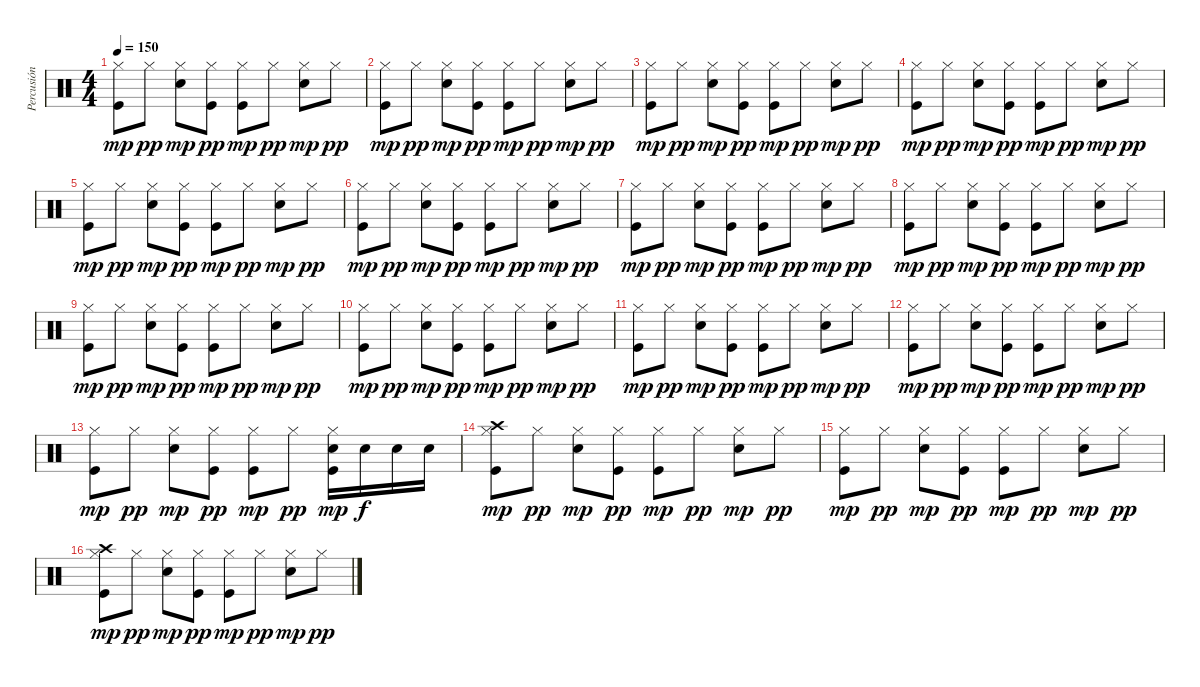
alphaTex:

\track ("Percusión" "Percusión") {instrument percussion}
\staff {score}
\articulation defaults
\ts (4 4)
\tempo 150
\clef neutral
\ks c
("Hi-Hat (closed)" "Kick (hit)").8{dy mp} "Hi-Hat (closed)".8{dy pp} ("Hi-Hat (closed)" "Snare (hit) 2").8{dy mp} ("Hi-Hat (closed)" "Kick (hit)").8{dy pp} ("Hi-Hat (closed)" "Kick (hit)").8{dy mp} "Hi-Hat (closed)".8{dy pp} ("Hi-Hat (closed)" "Snare (hit) 2").8{dy mp} "Hi-Hat (closed)".8{dy pp} |
("Hi-Hat (closed)" "Kick (hit)").8{dy mp} "Hi-Hat (closed)".8{dy pp} ("Hi-Hat (closed)" "Snare (hit) 2").8{dy mp} ("Hi-Hat (closed)" "Kick (hit)").8{dy pp} ("Hi-Hat (closed)" "Kick (hit)").8{dy mp} "Hi-Hat (closed)".8{dy pp} ("Hi-Hat (closed)" "Snare (hit) 2").8{dy mp} "Hi-Hat (closed)".8{dy pp} |
("Hi-Hat (closed)" "Kick (hit)").8{dy mp} "Hi-Hat (closed)".8{dy pp} ("Hi-Hat (closed)" "Snare (hit) 2").8{dy mp} ("Hi-Hat (closed)" "Kick (hit)").8{dy pp} ("Hi-Hat (closed)" "Kick (hit)").8{dy mp} "Hi-Hat (closed)".8{dy pp} ("Hi-Hat (closed)" "Snare (hit) 2").8{dy mp} "Hi-Hat (closed)".8{dy pp} |
("Hi-Hat (closed)" "Kick (hit)").8{dy mp} "Hi-Hat (closed)".8{dy pp} ("Hi-Hat (closed)" "Snare (hit) 2").8{dy mp} ("Hi-Hat (closed)" "Kick (hit)").8{dy pp} ("Hi-Hat (closed)" "Kick (hit)").8{dy mp} "Hi-Hat (closed)".8{dy pp} ("Hi-Hat (closed)" "Snare (hit) 2").8{dy mp} "Hi-Hat (closed)".8{dy pp} |
("Hi-Hat (closed)" "Kick (hit)").8{dy mp} "Hi-Hat (closed)".8{dy pp} ("Hi-Hat (closed)" "Snare (hit) 2").8{dy mp} ("Hi-Hat (closed)" "Kick (hit)").8{dy pp} ("Hi-Hat (closed)" "Kick (hit)").8{dy mp} "Hi-Hat (closed)".8{dy pp} ("Hi-Hat (closed)" "Snare (hit) 2").8{dy mp} "Hi-Hat (closed)".8{dy pp} |
("Hi-Hat (closed)" "Kick (hit)").8{dy mp} "Hi-Hat (closed)".8{dy pp} ("Hi-Hat (closed)" "Snare (hit) 2").8{dy mp} ("Hi-Hat (closed)" "Kick (hit)").8{dy pp} ("Hi-Hat (closed)" "Kick (hit)").8{dy mp} "Hi-Hat (closed)".8{dy pp} ("Hi-Hat (closed)" "Snare (hit) 2").8{dy mp} "Hi-Hat (closed)".8{dy pp} |
("Hi-Hat (closed)" "Kick (hit)").8{dy mp} "Hi-Hat (closed)".8{dy pp} ("Hi-Hat (closed)" "Snare (hit) 2").8{dy mp} ("Hi-Hat (closed)" "Kick (hit)").8{dy pp} ("Hi-Hat (closed)" "Kick (hit)").8{dy mp} "Hi-Hat (closed)".8{dy pp} ("Hi-Hat (closed)" "Snare (hit) 2").8{dy mp} "Hi-Hat (closed)".8{dy pp} |
("Hi-Hat (closed)" "Kick (hit)").8{dy mp} "Hi-Hat (closed)".8{dy pp} ("Hi-Hat (closed)" "Snare (hit) 2").8{dy mp} ("Hi-Hat (closed)" "Kick (hit)").8{dy pp} ("Hi-Hat (closed)" "Kick (hit)").8{dy mp} "Hi-Hat (closed)".8{dy pp} ("Hi-Hat (closed)" "Snare (hit) 2").8{dy mp} "Hi-Hat (closed)".8{dy pp} |
("Hi-Hat (closed)" "Kick (hit)").8{dy mp} "Hi-Hat (closed)".8{dy pp} ("Hi-Hat (closed)" "Snare (hit) 2").8{dy mp} ("Hi-Hat (closed)" "Kick (hit)").8{dy pp} ("Hi-Hat (closed)" "Kick (hit)").8{dy mp} "Hi-Hat (closed)".8{dy pp} ("Hi-Hat (closed)" "Snare (hit) 2").8{dy mp} "Hi-Hat (closed)".8{dy pp} |
("Hi-Hat (closed)" "Kick (hit)").8{dy mp} "Hi-Hat (closed)".8{dy pp} ("Hi-Hat (closed)" "Snare (hit) 2").8{dy mp} ("Hi-Hat (closed)" "Kick (hit)").8{dy pp} ("Hi-Hat (closed)" "Kick (hit)").8{dy mp} "Hi-Hat (closed)".8{dy pp} ("Hi-Hat (closed)" "Snare (hit) 2").8{dy mp} "Hi-Hat (closed)".8{dy pp} |
("Hi-Hat (closed)" "Kick (hit)").8{dy mp} "Hi-Hat (closed)".8{dy pp} ("Hi-Hat (closed)" "Snare (hit) 2").8{dy mp} ("Hi-Hat (closed)" "Kick (hit)").8{dy pp} ("Hi-Hat (closed)" "Kick (hit)").8{dy mp} "Hi-Hat (closed)".8{dy pp} ("Hi-Hat (closed)" "Snare (hit) 2").8{dy mp} "Hi-Hat (closed)".8{dy pp} |
("Hi-Hat (closed)" "Kick (hit)").8{dy mp} "Hi-Hat (closed)".8{dy pp} ("Hi-Hat (closed)" "Snare (hit) 2").8{dy mp} ("Hi-Hat (closed)" "Kick (hit)").8{dy pp} ("Hi-Hat (closed)" "Kick (hit)").8{dy mp} "Hi-Hat (closed)".8{dy pp} ("Hi-Hat (closed)" "Snare (hit) 2").8{dy mp} "Hi-Hat (closed)".8{dy pp} |
("Hi-Hat (closed)" "Kick (hit)").8{dy mp} "Hi-Hat (closed)".8{dy pp} ("Hi-Hat (closed)" "Snare (hit) 2").8{dy mp} ("Hi-Hat (closed)" "Kick (hit)").8{dy pp} ("Hi-Hat (closed)" "Kick (hit)").8{dy mp} "Hi-Hat (closed)".8{dy pp} ("Hi-Hat (closed)" "Snare (hit) 2" "Kick (hit)").16{dy mp} "Snare (hit) 2".16{dy f} "Snare (hit) 2".16 "Snare (hit) 2".16 |
("Crash high (hit)" "Hi-Hat (closed)" "Kick (hit)").8{dy mp} "Hi-Hat (closed)".8{dy pp} ("Hi-Hat (closed)" "Snare (hit) 2").8{dy mp} ("Hi-Hat (closed)" "Kick (hit)").8{dy pp} ("Hi-Hat (closed)" "Kick (hit)").8{dy mp} "Hi-Hat (closed)".8{dy pp} ("Hi-Hat (closed)" "Snare (hit) 2").8{dy mp} "Hi-Hat (closed)".8{dy pp} |
("Hi-Hat (closed)" "Kick (hit)").8{dy mp} "Hi-Hat (closed)".8{dy pp} ("Hi-Hat (closed)" "Snare (hit) 2").8{dy mp} ("Hi-Hat (closed)" "Kick (hit)").8{dy pp} ("Hi-Hat (closed)" "Kick (hit)").8{dy mp} "Hi-Hat (closed)".8{dy pp} ("Hi-Hat (closed)" "Snare (hit) 2").8{dy mp} "Hi-Hat (closed)".8{dy pp} |
("Crash high (hit)" "Hi-Hat (closed)" "Kick (hit)").8{dy mp} "Hi-Hat (closed)".8{dy pp} ("Hi-Hat (closed)" "Snare (hit) 2").8{dy mp} ("Hi-Hat (closed)" "Kick (hit)").8{dy pp} ("Hi-Hat (closed)" "Kick (hit)").8{dy mp} "Hi-Hat (closed)".8{dy pp} ("Hi-Hat (closed)" "Snare (hit) 2").8{dy mp} "Hi-Hat (closed)".8{dy pp}
